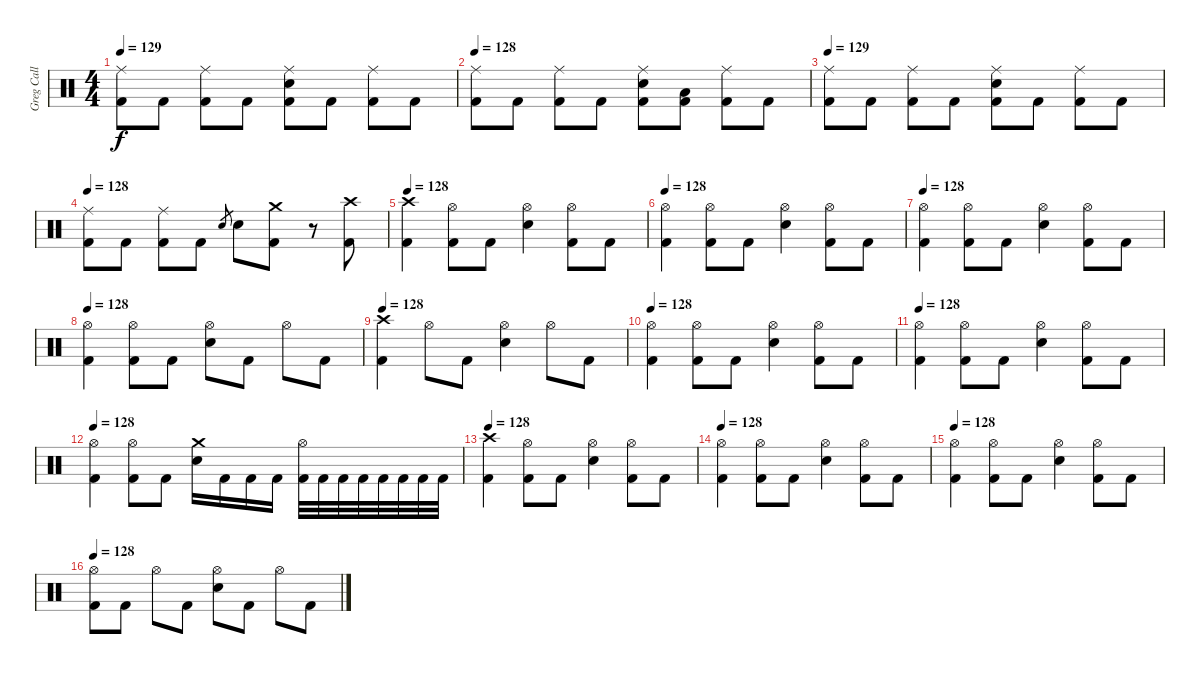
\track ("Greg Call (Drums)" "Greg Call ") {instrument percussion}
\staff {score}
\articulation defaults
\ts (4 4)
\tempo 129
\clef neutral
\ks c
("Ride (middle)" "Kick (hit) 2").8{dy f} "Kick (hit) 2".8 ("Ride (middle)" "Kick (hit) 2").8 "Kick (hit) 2".8 ("Ride (middle)" "Snare (hit) 2" "Kick (hit) 2").8 "Kick (hit) 2".8 ("Ride (middle)" "Kick (hit) 2").8 "Kick (hit) 2".8 |
\tempo 128
("Ride (middle)" "Kick (hit) 2").8 "Kick (hit) 2".8 ("Ride (middle)" "Kick (hit) 2").8 "Kick (hit) 2".8 ("Ride (middle)" "Snare (hit) 2" "Kick (hit) 2").8 ("Low Tom (hit)" "Kick (hit) 2").8 ("Ride (middle)" "Kick (hit) 2").8 "Kick (hit) 2".8 |
\tempo 129
("Ride (middle)" "Kick (hit) 2").8 "Kick (hit) 2".8 ("Ride (middle)" "Kick (hit) 2").8 "Kick (hit) 2".8 ("Ride (middle)" "Snare (hit) 2" "Kick (hit) 2").8 "Kick (hit) 2".8 ("Ride (middle)" "Kick (hit) 2").8 "Kick (hit) 2".8 |
\tempo 128
("Ride (middle)" "Kick (hit) 2").8 "Kick (hit) 2".8 ("Ride (middle)" "Kick (hit) 2").8 "Kick (hit) 2".8 "Snare (hit) 2".8{gr} "Snare (hit) 2".8 ("Crash medium (hit)" "Kick (hit) 2").8 r.8{volume 0} ("Crash high (hit)" "Kick (hit) 2").8{volume 16} |
\tempo 128
("Crash high (hit)" "Kick (hit) 2").4 ("Hi-Hat (open)" "Kick (hit) 2").8 "Kick (hit) 2".8 ("Hi-Hat (open)" "Snare (hit) 2").4 ("Hi-Hat (open)" "Kick (hit) 2").8 "Kick (hit) 2".8 |
\tempo 128
("Hi-Hat (open)" "Kick (hit) 2").4 ("Hi-Hat (open)" "Kick (hit) 2").8 "Kick (hit) 2".8 ("Hi-Hat (open)" "Snare (hit) 2").4 ("Hi-Hat (open)" "Kick (hit) 2").8 "Kick (hit) 2".8 |
\tempo 128
("Hi-Hat (open)" "Kick (hit) 2").4 ("Hi-Hat (open)" "Kick (hit) 2").8 "Kick (hit) 2".8 ("Hi-Hat (open)" "Snare (hit) 2").4 ("Hi-Hat (open)" "Kick (hit) 2").8 "Kick (hit) 2".8 |
\tempo 128
("Hi-Hat (open)" "Kick (hit) 2").4 ("Hi-Hat (open)" "Kick (hit) 2").8 "Kick (hit) 2".8 ("Hi-Hat (open)" "Snare (hit) 2").8 "Kick (hit) 2".8 "Hi-Hat (open)".8 "Kick (hit) 2".8 |
\tempo 128
("Crash high (hit)" "Kick (hit) 2").4 "Hi-Hat (open)".8 "Kick (hit) 2".8 ("Hi-Hat (open)" "Snare (hit) 2").4 "Hi-Hat (open)".8 "Kick (hit) 2".8 |
\tempo 128
("Hi-Hat (open)" "Kick (hit) 2").4 ("Hi-Hat (open)" "Kick (hit) 2").8 "Kick (hit) 2".8 ("Hi-Hat (open)" "Snare (hit) 2").4 ("Hi-Hat (open)" "Kick (hit) 2").8 "Kick (hit) 2".8 |
\tempo 128
("Hi-Hat (open)" "Kick (hit) 2").4 ("Hi-Hat (open)" "Kick (hit) 2").8 "Kick (hit) 2".8 ("Hi-Hat (open)" "Snare (hit) 2").4 ("Hi-Hat (open)" "Kick (hit) 2").8 "Kick (hit) 2".8 |
\tempo 128
("Hi-Hat (open)" "Kick (hit) 2").4 ("Hi-Hat (open)" "Kick (hit) 2").8 "Kick (hit) 2".8 ("Crash medium (hit)" "Snare (hit) 2").16 "Kick (hit) 2".16 "Kick (hit) 2".16 "Kick (hit) 2".16 ("Hi-Hat (open)" "Kick (hit) 2").32 "Kick (hit) 2".32 "Kick (hit) 2".32 "Kick (hit) 2".32 "Kick (hit) 2".32 "Kick (hit) 2".32 "Kick (hit) 2".32 "Kick (hit) 2".32 |
\tempo 128
("Crash high (hit)" "Kick (hit) 2").4 ("Hi-Hat (open)" "Kick (hit) 2").8 "Kick (hit) 2".8 ("Hi-Hat (open)" "Snare (hit) 2").4 ("Hi-Hat (open)" "Kick (hit) 2").8 "Kick (hit) 2".8 |
\tempo 128
("Hi-Hat (open)" "Kick (hit) 2").4 ("Hi-Hat (open)" "Kick (hit) 2").8 "Kick (hit) 2".8 ("Hi-Hat (open)" "Snare (hit) 2").4 ("Hi-Hat (open)" "Kick (hit) 2").8 "Kick (hit) 2".8 |
\tempo 128
("Hi-Hat (open)" "Kick (hit) 2").4 ("Hi-Hat (open)" "Kick (hit) 2").8 "Kick (hit) 2".8 ("Hi-Hat (open)" "Snare (hit) 2").4 ("Hi-Hat (open)" "Kick (hit) 2").8 "Kick (hit) 2".8 |
\tempo 128
("Hi-Hat (open)" "Kick (hit) 2").8 "Kick (hit) 2".8 "Hi-Hat (open)".8 "Kick (hit) 2".8 ("Snare (hit) 2" "Hi-Hat (open)").8 "Kick (hit) 2".8 "Hi-Hat (open)".8 "Kick (hit) 2".8
